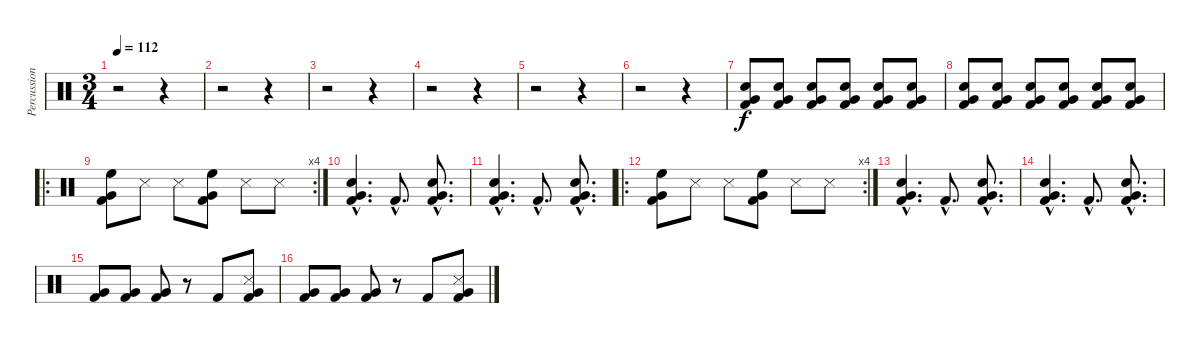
\track ("Percussions" "Percussion") {instrument percussion}
\staff {score}
\articulation defaults
\ts (3 4)
\tempo 112
\clef neutral
\ks c
r.2{dy f} r.4 |
r.2 r.4 |
r.2 r.4 |
r.2 r.4 |
r.2 r.4 |
r.2 r.4 |
("Kick (hit) 2" "Very Low Tom (hit)" "Electric Snare (hit)").8 ("Kick (hit) 2" "Very Low Tom (hit)" "Electric Snare (hit)").8 ("Kick (hit) 2" "Very Low Tom (hit)" "Electric Snare (hit)").8 ("Kick (hit) 2" "Very Low Tom (hit)" "Electric Snare (hit)").8 ("Kick (hit) 2" "Very Low Tom (hit)" "Electric Snare (hit)").8 ("Kick (hit) 2" "Very Low Tom (hit)" "Electric Snare (hit)").8 |
("Kick (hit) 2" "Very Low Tom (hit)" "Electric Snare (hit)").8 ("Kick (hit) 2" "Very Low Tom (hit)" "Electric Snare (hit)").8 ("Kick (hit) 2" "Very Low Tom (hit)" "Electric Snare (hit)").8 ("Kick (hit) 2" "Very Low Tom (hit)" "Electric Snare (hit)").8 ("Kick (hit) 2" "Very Low Tom (hit)" "Electric Snare (hit)").8 ("Kick (hit) 2" "Very Low Tom (hit)" "Electric Snare (hit)").8 |
\ro
\rc 4
("Kick (hit) 2" "Very Low Tom (hit)" "High Floor Tom (hit)").8 "Snare (side stick) 3".8 "Snare (side stick) 3".8 ("Kick (hit) 2" "Very Low Tom (hit)" "High Floor Tom (hit)").8 "Snare (side stick) 3".8 "Snare (side stick) 3".8 |
("Kick (hit) 2"{hac} "Very Low Tom (hit)"{hac} "Electric Snare (hit)"{hac}).4{d} "Kick (hit) 2"{hac}.8{d} ("Kick (hit) 2"{hac} "Very Low Tom (hit)"{hac} "Electric Snare (hit)"{hac}).8{d} |
("Kick (hit) 2"{hac} "Very Low Tom (hit)"{hac} "Electric Snare (hit)"{hac}).4{d} "Kick (hit) 2"{hac}.8{d} ("Kick (hit) 2"{hac} "Very Low Tom (hit)"{hac} "Electric Snare (hit)"{hac}).8{d} |
\ro
\rc 4
("Kick (hit) 2" "Very Low Tom (hit)" "High Floor Tom (hit)").8 "Snare (side stick) 3".8 "Snare (side stick) 3".8 ("Kick (hit) 2" "Very Low Tom (hit)" "High Floor Tom (hit)").8 "Snare (side stick) 3".8 "Snare (side stick) 3".8 |
("Kick (hit) 2"{hac} "Very Low Tom (hit)"{hac} "Electric Snare (hit)"{hac}).4{d} "Kick (hit) 2"{hac}.8{d} ("Kick (hit) 2"{hac} "Very Low Tom (hit)"{hac} "Electric Snare (hit)"{hac}).8{d} |
("Kick (hit) 2"{hac} "Very Low Tom (hit)"{hac} "Electric Snare (hit)"{hac}).4{d} "Kick (hit) 2"{hac}.8{d} ("Kick (hit) 2"{hac} "Very Low Tom (hit)"{hac} "Electric Snare (hit)"{hac}).8{d} |
("Kick (hit) 2" "Very Low Tom (hit)").8 ("Kick (hit) 2" "Very Low Tom (hit)").8 ("Kick (hit) 2" "Very Low Tom (hit)").8 r.8 "Kick (hit) 2".8 ("Kick (hit) 2" "Very Low Tom (hit)" "Snare (side stick) 3").8 |
("Kick (hit) 2" "Very Low Tom (hit)").8 ("Kick (hit) 2" "Very Low Tom (hit)").8 ("Kick (hit) 2" "Very Low Tom (hit)").8 r.8 "Kick (hit) 2".8 ("Kick (hit) 2" "Very Low Tom (hit)" "Snare (side stick) 3").8
